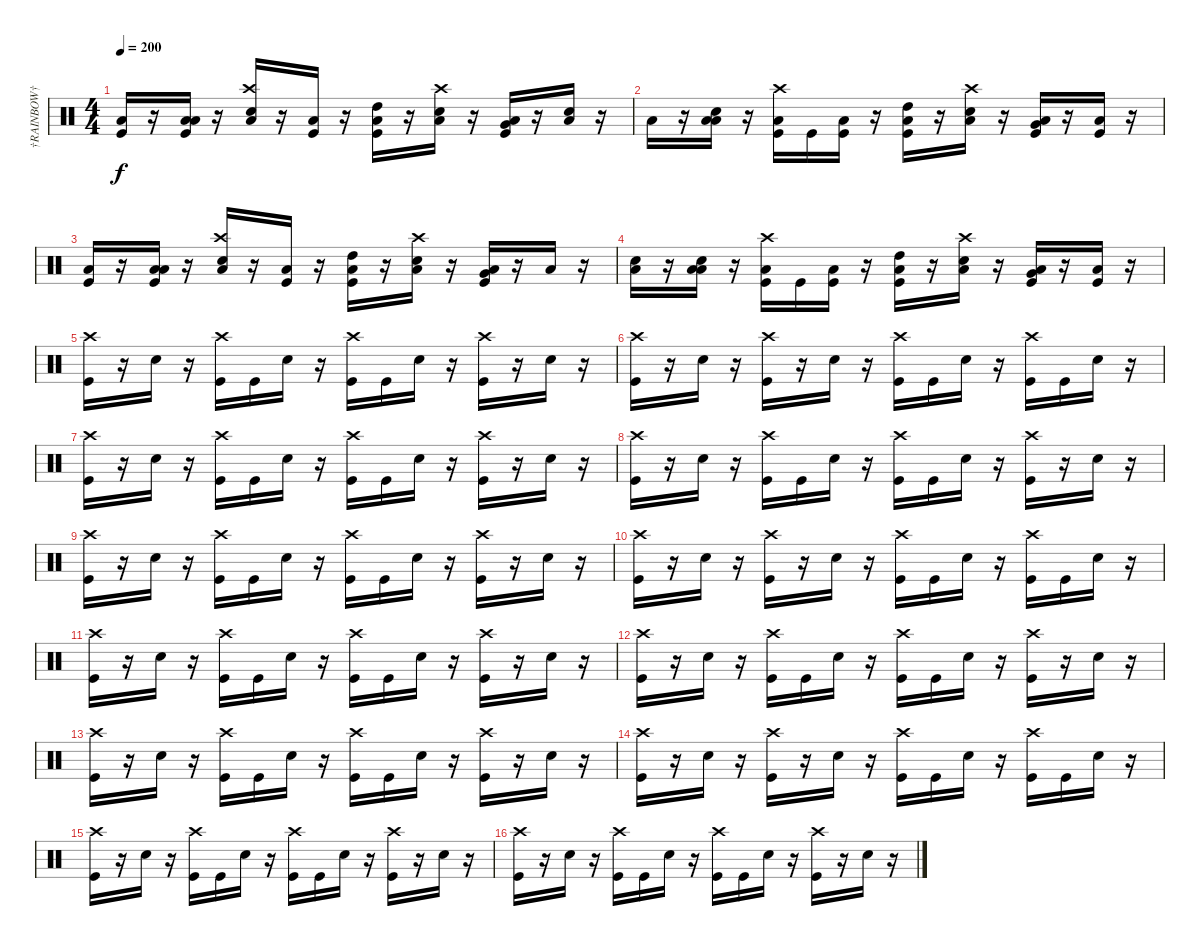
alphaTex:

\track ("†RAINBOW†" "†RAINBOW†") {instrument percussion}
\staff {score}
\articulation defaults
\ts (4 4)
\tempo 200
\clef neutral
\ks c
("Low Floor Tom (hit)" "Kick (hit)").16{dy f} r.16 ("Low Floor Tom (hit)" "Low Tom (hit)" "Kick (hit)").16 r.16 ("Crash high (hit)" "Low Floor Tom (hit)" "Electric Snare (hit)").16 r.16 ("Low Floor Tom (hit)" "Kick (hit)").16 r.16 ("Low Floor Tom (hit)" "High Tom (hit)" "Kick (hit)").16 r.16 ("Crash high (hit)" "Low Floor Tom (hit)" "Electric Snare (hit)").16 r.16 ("Low Floor Tom (hit)" "Very Low Tom (hit)" "Kick (hit)").16 r.16 ("Low Floor Tom (hit)" "Electric Snare (hit)").16 r.16 |
"Low Floor Tom (hit)".16 r.16 ("Low Floor Tom (hit)" "Low Tom (hit)" "Electric Snare (hit)").16 r.16 ("Crash high (hit)" "Low Floor Tom (hit)" "Kick (hit)").16 "Kick (hit)".16 ("Low Floor Tom (hit)" "Kick (hit)").16 r.16 ("Low Floor Tom (hit)" "High Tom (hit)" "Kick (hit)").16 r.16 ("Crash high (hit)" "Low Floor Tom (hit)" "Electric Snare (hit)").16 r.16 ("Low Floor Tom (hit)" "Very Low Tom (hit)" "Kick (hit)").16 r.16 ("Low Floor Tom (hit)" "Kick (hit)").16 r.16 |
("Low Floor Tom (hit)" "Kick (hit)").16 r.16 ("Low Floor Tom (hit)" "Low Tom (hit)" "Kick (hit)").16 r.16 ("Crash high (hit)" "Low Floor Tom (hit)" "Electric Snare (hit)").16 r.16 ("Low Floor Tom (hit)" "Kick (hit)").16 r.16 ("Low Floor Tom (hit)" "High Tom (hit)" "Kick (hit)").16 r.16 ("Crash high (hit)" "Low Floor Tom (hit)" "Electric Snare (hit)").16 r.16 ("Low Floor Tom (hit)" "Very Low Tom (hit)" "Kick (hit)").16 r.16 "Low Floor Tom (hit)".16 r.16 |
("Low Floor Tom (hit)" "Electric Snare (hit)").16 r.16 ("Low Floor Tom (hit)" "Low Tom (hit)" "Electric Snare (hit)").16 r.16 ("Crash high (hit)" "Low Floor Tom (hit)" "Kick (hit)").16 "Kick (hit)".16 ("Low Floor Tom (hit)" "Kick (hit)").16 r.16 ("Low Floor Tom (hit)" "High Tom (hit)" "Kick (hit)").16 r.16 ("Crash high (hit)" "Low Floor Tom (hit)" "Electric Snare (hit)").16 r.16 ("Low Floor Tom (hit)" "Very Low Tom (hit)" "Kick (hit)").16 r.16 ("Low Floor Tom (hit)" "Kick (hit)").16 r.16 |
("Crash high (hit)" "Kick (hit)").16 r.16 "Electric Snare (hit)".16 r.16 ("Crash high (hit)" "Kick (hit)").16 "Kick (hit)".16 "Electric Snare (hit)".16 r.16 ("Crash high (hit)" "Kick (hit)").16 "Kick (hit)".16 "Electric Snare (hit)".16 r.16 ("Crash high (hit)" "Kick (hit)").16 r.16 "Electric Snare (hit)".16 r.16 |
("Crash high (hit)" "Kick (hit)").16 r.16 "Electric Snare (hit)".16 r.16 ("Crash high (hit)" "Kick (hit)").16 r.16 "Electric Snare (hit)".16 r.16 ("Crash high (hit)" "Kick (hit)").16 "Kick (hit)".16 "Electric Snare (hit)".16 r.16 ("Crash high (hit)" "Kick (hit)").16 "Kick (hit)".16 "Electric Snare (hit)".16 r.16 |
("Crash high (hit)" "Kick (hit)").16 r.16 "Electric Snare (hit)".16 r.16 ("Crash high (hit)" "Kick (hit)").16 "Kick (hit)".16 "Electric Snare (hit)".16 r.16 ("Crash high (hit)" "Kick (hit)").16 "Kick (hit)".16 "Electric Snare (hit)".16 r.16 ("Crash high (hit)" "Kick (hit)").16 r.16 "Electric Snare (hit)".16 r.16 |
("Crash high (hit)" "Kick (hit)").16 r.16 "Electric Snare (hit)".16 r.16 ("Crash high (hit)" "Kick (hit)").16 "Kick (hit)".16 "Electric Snare (hit)".16 r.16 ("Crash high (hit)" "Kick (hit)").16 "Kick (hit)".16 "Electric Snare (hit)".16 r.16 ("Crash high (hit)" "Kick (hit)").16 r.16 "Electric Snare (hit)".16 r.16 |
("Crash high (hit)" "Kick (hit)").16 r.16 "Electric Snare (hit)".16 r.16 ("Crash high (hit)" "Kick (hit)").16 "Kick (hit)".16 "Electric Snare (hit)".16 r.16 ("Crash high (hit)" "Kick (hit)").16 "Kick (hit)".16 "Electric Snare (hit)".16 r.16 ("Crash high (hit)" "Kick (hit)").16 r.16 "Electric Snare (hit)".16 r.16 |
("Crash high (hit)" "Kick (hit)").16 r.16 "Electric Snare (hit)".16 r.16 ("Crash high (hit)" "Kick (hit)").16 r.16 "Electric Snare (hit)".16 r.16 ("Crash high (hit)" "Kick (hit)").16 "Kick (hit)".16 "Electric Snare (hit)".16 r.16 ("Crash high (hit)" "Kick (hit)").16 "Kick (hit)".16 "Electric Snare (hit)".16 r.16 |
("Crash high (hit)" "Kick (hit)").16 r.16 "Electric Snare (hit)".16 r.16 ("Crash high (hit)" "Kick (hit)").16 "Kick (hit)".16 "Electric Snare (hit)".16 r.16 ("Crash high (hit)" "Kick (hit)").16 "Kick (hit)".16 "Electric Snare (hit)".16 r.16 ("Crash high (hit)" "Kick (hit)").16 r.16 "Electric Snare (hit)".16 r.16 |
("Crash high (hit)" "Kick (hit)").16 r.16 "Electric Snare (hit)".16 r.16 ("Crash high (hit)" "Kick (hit)").16 "Kick (hit)".16 "Electric Snare (hit)".16 r.16 ("Crash high (hit)" "Kick (hit)").16 "Kick (hit)".16 "Electric Snare (hit)".16 r.16 ("Crash high (hit)" "Kick (hit)").16 r.16 "Electric Snare (hit)".16 r.16 |
("Crash high (hit)" "Kick (hit)").16 r.16 "Electric Snare (hit)".16 r.16 ("Crash high (hit)" "Kick (hit)").16 "Kick (hit)".16 "Electric Snare (hit)".16 r.16 ("Crash high (hit)" "Kick (hit)").16 "Kick (hit)".16 "Electric Snare (hit)".16 r.16 ("Crash high (hit)" "Kick (hit)").16 r.16 "Electric Snare (hit)".16 r.16 |
("Crash high (hit)" "Kick (hit)").16 r.16 "Electric Snare (hit)".16 r.16 ("Crash high (hit)" "Kick (hit)").16 r.16 "Electric Snare (hit)".16 r.16 ("Crash high (hit)" "Kick (hit)").16 "Kick (hit)".16 "Electric Snare (hit)".16 r.16 ("Crash high (hit)" "Kick (hit)").16 "Kick (hit)".16 "Electric Snare (hit)".16 r.16 |
("Crash high (hit)" "Kick (hit)").16 r.16 "Electric Snare (hit)".16 r.16 ("Crash high (hit)" "Kick (hit)").16 "Kick (hit)".16 "Electric Snare (hit)".16 r.16 ("Crash high (hit)" "Kick (hit)").16 "Kick (hit)".16 "Electric Snare (hit)".16 r.16 ("Crash high (hit)" "Kick (hit)").16 r.16 "Electric Snare (hit)".16 r.16 |
("Crash high (hit)" "Kick (hit)").16 r.16 "Electric Snare (hit)".16 r.16 ("Crash high (hit)" "Kick (hit)").16 "Kick (hit)".16 "Electric Snare (hit)".16 r.16 ("Crash high (hit)" "Kick (hit)").16 "Kick (hit)".16 "Electric Snare (hit)".16 r.16 ("Crash high (hit)" "Kick (hit)").16 r.16 "Electric Snare (hit)".16 r.16
